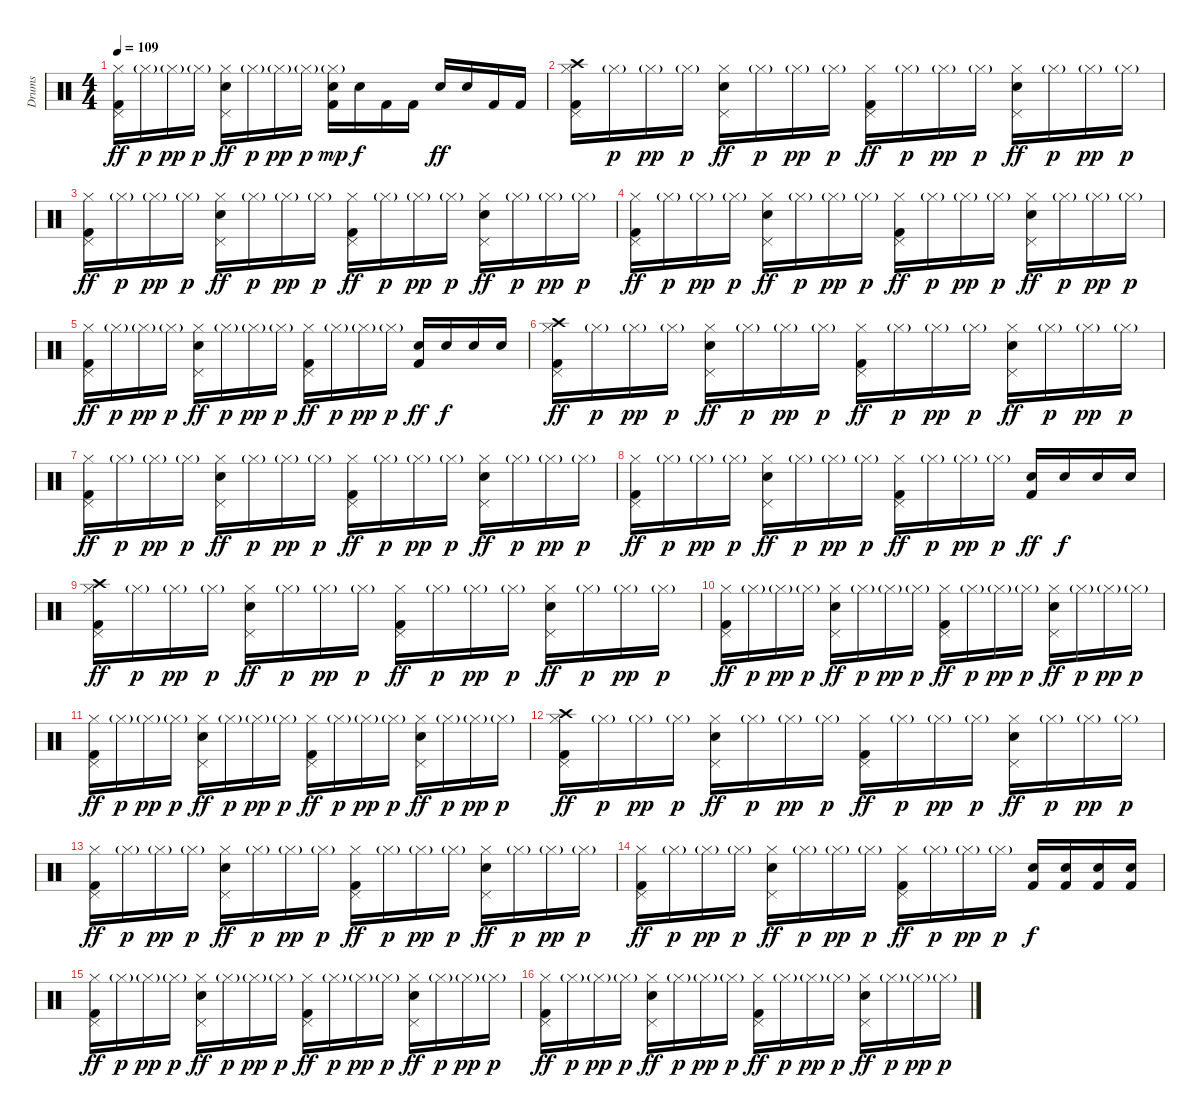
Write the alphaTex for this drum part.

\track ("Drums" "Drums") {instrument percussion}
\staff {score}
\articulation defaults
\ts (4 4)
\tempo 109
\clef neutral
\ks c
("Hi-Hat (closed)" "Pedal Hi-Hat (hit)" "Kick (hit) 2").16{dy ff} "Hi-Hat (closed)"{g}.16{dy p} "Hi-Hat (closed)"{g}.16{dy pp} "Hi-Hat (closed)"{g}.16{dy p} ("Hi-Hat (closed)" "Pedal Hi-Hat (hit)" "Electric Snare (hit)").16{dy ff} "Hi-Hat (closed)"{g}.16{dy p} "Hi-Hat (closed)"{g}.16{dy pp} "Hi-Hat (closed)"{g}.16{dy p} ("Hi-Hat (closed)"{g} "Kick (hit) 2" "Electric Snare (hit)").16{dy mp} "Electric Snare (hit)".16{dy f} "Kick (hit) 2".16 "Kick (hit) 2".16 "Electric Snare (hit)".16{dy ff} "Electric Snare (hit)".16 "Kick (hit) 2".16 "Kick (hit) 2".16 |
("Hi-Hat (closed)" "Pedal Hi-Hat (hit)" "Kick (hit) 2" "Crash high (hit)").16 "Hi-Hat (closed)"{g}.16{dy p} "Hi-Hat (closed)"{g}.16{dy pp} "Hi-Hat (closed)"{g}.16{dy p} ("Hi-Hat (closed)" "Pedal Hi-Hat (hit)" "Electric Snare (hit)").16{dy ff} "Hi-Hat (closed)"{g}.16{dy p} "Hi-Hat (closed)"{g}.16{dy pp} "Hi-Hat (closed)"{g}.16{dy p} ("Hi-Hat (closed)" "Pedal Hi-Hat (hit)" "Kick (hit) 2").16{dy ff} "Hi-Hat (closed)"{g}.16{dy p} "Hi-Hat (closed)"{g}.16{dy pp} "Hi-Hat (closed)"{g}.16{dy p} ("Hi-Hat (closed)" "Pedal Hi-Hat (hit)" "Electric Snare (hit)").16{dy ff} "Hi-Hat (closed)"{g}.16{dy p} "Hi-Hat (closed)"{g}.16{dy pp} "Hi-Hat (closed)"{g}.16{dy p} |
("Hi-Hat (closed)" "Pedal Hi-Hat (hit)" "Kick (hit) 2").16{dy ff} "Hi-Hat (closed)"{g}.16{dy p} "Hi-Hat (closed)"{g}.16{dy pp} "Hi-Hat (closed)"{g}.16{dy p} ("Hi-Hat (closed)" "Pedal Hi-Hat (hit)" "Electric Snare (hit)").16{dy ff} "Hi-Hat (closed)"{g}.16{dy p} "Hi-Hat (closed)"{g}.16{dy pp} "Hi-Hat (closed)"{g}.16{dy p} ("Hi-Hat (closed)" "Pedal Hi-Hat (hit)" "Kick (hit) 2").16{dy ff} "Hi-Hat (closed)"{g}.16{dy p} "Hi-Hat (closed)"{g}.16{dy pp} "Hi-Hat (closed)"{g}.16{dy p} ("Hi-Hat (closed)" "Pedal Hi-Hat (hit)" "Electric Snare (hit)").16{dy ff} "Hi-Hat (closed)"{g}.16{dy p} "Hi-Hat (closed)"{g}.16{dy pp} "Hi-Hat (closed)"{g}.16{dy p} |
("Hi-Hat (closed)" "Pedal Hi-Hat (hit)" "Kick (hit) 2").16{dy ff} "Hi-Hat (closed)"{g}.16{dy p} "Hi-Hat (closed)"{g}.16{dy pp} "Hi-Hat (closed)"{g}.16{dy p} ("Hi-Hat (closed)" "Pedal Hi-Hat (hit)" "Electric Snare (hit)").16{dy ff} "Hi-Hat (closed)"{g}.16{dy p} "Hi-Hat (closed)"{g}.16{dy pp} "Hi-Hat (closed)"{g}.16{dy p} ("Hi-Hat (closed)" "Pedal Hi-Hat (hit)" "Kick (hit) 2").16{dy ff} "Hi-Hat (closed)"{g}.16{dy p} "Hi-Hat (closed)"{g}.16{dy pp} "Hi-Hat (closed)"{g}.16{dy p} ("Hi-Hat (closed)" "Pedal Hi-Hat (hit)" "Electric Snare (hit)").16{dy ff} "Hi-Hat (closed)"{g}.16{dy p} "Hi-Hat (closed)"{g}.16{dy pp} "Hi-Hat (closed)"{g}.16{dy p} |
("Hi-Hat (closed)" "Pedal Hi-Hat (hit)" "Kick (hit) 2").16{dy ff} "Hi-Hat (closed)"{g}.16{dy p} "Hi-Hat (closed)"{g}.16{dy pp} "Hi-Hat (closed)"{g}.16{dy p} ("Hi-Hat (closed)" "Pedal Hi-Hat (hit)" "Electric Snare (hit)").16{dy ff} "Hi-Hat (closed)"{g}.16{dy p} "Hi-Hat (closed)"{g}.16{dy pp} "Hi-Hat (closed)"{g}.16{dy p} ("Hi-Hat (closed)" "Pedal Hi-Hat (hit)" "Kick (hit) 2").16{dy ff} "Hi-Hat (closed)"{g}.16{dy p} "Hi-Hat (closed)"{g}.16{dy pp} "Hi-Hat (closed)"{g}.16{dy p} ("Kick (hit) 2" "Electric Snare (hit)").16{dy ff} "Electric Snare (hit)".16{dy f} "Electric Snare (hit)".16 "Electric Snare (hit)".16 |
("Hi-Hat (closed)" "Pedal Hi-Hat (hit)" "Kick (hit) 2" "Crash high (hit)").16{dy ff} "Hi-Hat (closed)"{g}.16{dy p} "Hi-Hat (closed)"{g}.16{dy pp} "Hi-Hat (closed)"{g}.16{dy p} ("Hi-Hat (closed)" "Pedal Hi-Hat (hit)" "Electric Snare (hit)").16{dy ff} "Hi-Hat (closed)"{g}.16{dy p} "Hi-Hat (closed)"{g}.16{dy pp} "Hi-Hat (closed)"{g}.16{dy p} ("Hi-Hat (closed)" "Pedal Hi-Hat (hit)" "Kick (hit) 2").16{dy ff} "Hi-Hat (closed)"{g}.16{dy p} "Hi-Hat (closed)"{g}.16{dy pp} "Hi-Hat (closed)"{g}.16{dy p} ("Hi-Hat (closed)" "Pedal Hi-Hat (hit)" "Electric Snare (hit)").16{dy ff} "Hi-Hat (closed)"{g}.16{dy p} "Hi-Hat (closed)"{g}.16{dy pp} "Hi-Hat (closed)"{g}.16{dy p} |
("Hi-Hat (closed)" "Pedal Hi-Hat (hit)" "Kick (hit) 2").16{dy ff} "Hi-Hat (closed)"{g}.16{dy p} "Hi-Hat (closed)"{g}.16{dy pp} "Hi-Hat (closed)"{g}.16{dy p} ("Hi-Hat (closed)" "Pedal Hi-Hat (hit)" "Electric Snare (hit)").16{dy ff} "Hi-Hat (closed)"{g}.16{dy p} "Hi-Hat (closed)"{g}.16{dy pp} "Hi-Hat (closed)"{g}.16{dy p} ("Hi-Hat (closed)" "Pedal Hi-Hat (hit)" "Kick (hit) 2").16{dy ff} "Hi-Hat (closed)"{g}.16{dy p} "Hi-Hat (closed)"{g}.16{dy pp} "Hi-Hat (closed)"{g}.16{dy p} ("Hi-Hat (closed)" "Pedal Hi-Hat (hit)" "Electric Snare (hit)").16{dy ff} "Hi-Hat (closed)"{g}.16{dy p} "Hi-Hat (closed)"{g}.16{dy pp} "Hi-Hat (closed)"{g}.16{dy p} |
("Hi-Hat (closed)" "Pedal Hi-Hat (hit)" "Kick (hit) 2").16{dy ff} "Hi-Hat (closed)"{g}.16{dy p} "Hi-Hat (closed)"{g}.16{dy pp} "Hi-Hat (closed)"{g}.16{dy p} ("Hi-Hat (closed)" "Pedal Hi-Hat (hit)" "Electric Snare (hit)").16{dy ff} "Hi-Hat (closed)"{g}.16{dy p} "Hi-Hat (closed)"{g}.16{dy pp} "Hi-Hat (closed)"{g}.16{dy p} ("Hi-Hat (closed)" "Pedal Hi-Hat (hit)" "Kick (hit) 2").16{dy ff} "Hi-Hat (closed)"{g}.16{dy p} "Hi-Hat (closed)"{g}.16{dy pp} "Hi-Hat (closed)"{g}.16{dy p} ("Kick (hit) 2" "Electric Snare (hit)").16{dy ff} "Electric Snare (hit)".16{dy f} "Electric Snare (hit)".16 "Electric Snare (hit)".16 |
("Hi-Hat (closed)" "Pedal Hi-Hat (hit)" "Kick (hit) 2" "Crash high (hit)").16{dy ff} "Hi-Hat (closed)"{g}.16{dy p} "Hi-Hat (closed)"{g}.16{dy pp} "Hi-Hat (closed)"{g}.16{dy p} ("Hi-Hat (closed)" "Pedal Hi-Hat (hit)" "Electric Snare (hit)").16{dy ff} "Hi-Hat (closed)"{g}.16{dy p} "Hi-Hat (closed)"{g}.16{dy pp} "Hi-Hat (closed)"{g}.16{dy p} ("Hi-Hat (closed)" "Pedal Hi-Hat (hit)" "Kick (hit) 2").16{dy ff} "Hi-Hat (closed)"{g}.16{dy p} "Hi-Hat (closed)"{g}.16{dy pp} "Hi-Hat (closed)"{g}.16{dy p} ("Hi-Hat (closed)" "Pedal Hi-Hat (hit)" "Electric Snare (hit)").16{dy ff} "Hi-Hat (closed)"{g}.16{dy p} "Hi-Hat (closed)"{g}.16{dy pp} "Hi-Hat (closed)"{g}.16{dy p} |
("Hi-Hat (closed)" "Pedal Hi-Hat (hit)" "Kick (hit) 2").16{dy ff} "Hi-Hat (closed)"{g}.16{dy p} "Hi-Hat (closed)"{g}.16{dy pp} "Hi-Hat (closed)"{g}.16{dy p} ("Hi-Hat (closed)" "Pedal Hi-Hat (hit)" "Electric Snare (hit)").16{dy ff} "Hi-Hat (closed)"{g}.16{dy p} "Hi-Hat (closed)"{g}.16{dy pp} "Hi-Hat (closed)"{g}.16{dy p} ("Hi-Hat (closed)" "Pedal Hi-Hat (hit)" "Kick (hit) 2").16{dy ff} "Hi-Hat (closed)"{g}.16{dy p} "Hi-Hat (closed)"{g}.16{dy pp} "Hi-Hat (closed)"{g}.16{dy p} ("Hi-Hat (closed)" "Pedal Hi-Hat (hit)" "Electric Snare (hit)").16{dy ff} "Hi-Hat (closed)"{g}.16{dy p} "Hi-Hat (closed)"{g}.16{dy pp} "Hi-Hat (closed)"{g}.16{dy p} |
("Hi-Hat (closed)" "Pedal Hi-Hat (hit)" "Kick (hit) 2").16{dy ff} "Hi-Hat (closed)"{g}.16{dy p} "Hi-Hat (closed)"{g}.16{dy pp} "Hi-Hat (closed)"{g}.16{dy p} ("Hi-Hat (closed)" "Pedal Hi-Hat (hit)" "Electric Snare (hit)").16{dy ff} "Hi-Hat (closed)"{g}.16{dy p} "Hi-Hat (closed)"{g}.16{dy pp} "Hi-Hat (closed)"{g}.16{dy p} ("Hi-Hat (closed)" "Pedal Hi-Hat (hit)" "Kick (hit) 2").16{dy ff} "Hi-Hat (closed)"{g}.16{dy p} "Hi-Hat (closed)"{g}.16{dy pp} "Hi-Hat (closed)"{g}.16{dy p} ("Hi-Hat (closed)" "Pedal Hi-Hat (hit)" "Electric Snare (hit)").16{dy ff} "Hi-Hat (closed)"{g}.16{dy p} "Hi-Hat (closed)"{g}.16{dy pp} "Hi-Hat (closed)"{g}.16{dy p} |
("Hi-Hat (closed)" "Pedal Hi-Hat (hit)" "Kick (hit) 2" "Crash high (hit)").16{dy ff} "Hi-Hat (closed)"{g}.16{dy p} "Hi-Hat (closed)"{g}.16{dy pp} "Hi-Hat (closed)"{g}.16{dy p} ("Hi-Hat (closed)" "Pedal Hi-Hat (hit)" "Electric Snare (hit)").16{dy ff} "Hi-Hat (closed)"{g}.16{dy p} "Hi-Hat (closed)"{g}.16{dy pp} "Hi-Hat (closed)"{g}.16{dy p} ("Hi-Hat (closed)" "Pedal Hi-Hat (hit)" "Kick (hit) 2").16{dy ff} "Hi-Hat (closed)"{g}.16{dy p} "Hi-Hat (closed)"{g}.16{dy pp} "Hi-Hat (closed)"{g}.16{dy p} ("Hi-Hat (closed)" "Pedal Hi-Hat (hit)" "Electric Snare (hit)").16{dy ff} "Hi-Hat (closed)"{g}.16{dy p} "Hi-Hat (closed)"{g}.16{dy pp} "Hi-Hat (closed)"{g}.16{dy p} |
("Hi-Hat (closed)" "Pedal Hi-Hat (hit)" "Kick (hit) 2").16{dy ff} "Hi-Hat (closed)"{g}.16{dy p} "Hi-Hat (closed)"{g}.16{dy pp} "Hi-Hat (closed)"{g}.16{dy p} ("Hi-Hat (closed)" "Pedal Hi-Hat (hit)" "Electric Snare (hit)").16{dy ff} "Hi-Hat (closed)"{g}.16{dy p} "Hi-Hat (closed)"{g}.16{dy pp} "Hi-Hat (closed)"{g}.16{dy p} ("Hi-Hat (closed)" "Pedal Hi-Hat (hit)" "Kick (hit) 2").16{dy ff} "Hi-Hat (closed)"{g}.16{dy p} "Hi-Hat (closed)"{g}.16{dy pp} "Hi-Hat (closed)"{g}.16{dy p} ("Hi-Hat (closed)" "Pedal Hi-Hat (hit)" "Electric Snare (hit)").16{dy ff} "Hi-Hat (closed)"{g}.16{dy p} "Hi-Hat (closed)"{g}.16{dy pp} "Hi-Hat (closed)"{g}.16{dy p} |
("Hi-Hat (closed)" "Pedal Hi-Hat (hit)" "Kick (hit) 2").16{dy ff} "Hi-Hat (closed)"{g}.16{dy p} "Hi-Hat (closed)"{g}.16{dy pp} "Hi-Hat (closed)"{g}.16{dy p} ("Hi-Hat (closed)" "Pedal Hi-Hat (hit)" "Electric Snare (hit)").16{dy ff} "Hi-Hat (closed)"{g}.16{dy p} "Hi-Hat (closed)"{g}.16{dy pp} "Hi-Hat (closed)"{g}.16{dy p} ("Hi-Hat (closed)" "Pedal Hi-Hat (hit)" "Kick (hit) 2").16{dy ff} "Hi-Hat (closed)"{g}.16{dy p} "Hi-Hat (closed)"{g}.16{dy pp} "Hi-Hat (closed)"{g}.16{dy p} ("Kick (hit) 2" "Electric Snare (hit)").16{dy f} ("Kick (hit) 2" "Electric Snare (hit)").16 ("Kick (hit) 2" "Electric Snare (hit)").16 ("Kick (hit) 2" "Electric Snare (hit)").16 |
("Hi-Hat (closed)" "Pedal Hi-Hat (hit)" "Kick (hit) 2").16{dy ff} "Hi-Hat (closed)"{g}.16{dy p} "Hi-Hat (closed)"{g}.16{dy pp} "Hi-Hat (closed)"{g}.16{dy p} ("Hi-Hat (closed)" "Pedal Hi-Hat (hit)" "Electric Snare (hit)").16{dy ff} "Hi-Hat (closed)"{g}.16{dy p} "Hi-Hat (closed)"{g}.16{dy pp} "Hi-Hat (closed)"{g}.16{dy p} ("Hi-Hat (closed)" "Pedal Hi-Hat (hit)" "Kick (hit) 2").16{dy ff} "Hi-Hat (closed)"{g}.16{dy p} "Hi-Hat (closed)"{g}.16{dy pp} "Hi-Hat (closed)"{g}.16{dy p} ("Hi-Hat (closed)" "Pedal Hi-Hat (hit)" "Electric Snare (hit)").16{dy ff} "Hi-Hat (closed)"{g}.16{dy p} "Hi-Hat (closed)"{g}.16{dy pp} "Hi-Hat (closed)"{g}.16{dy p} |
("Hi-Hat (closed)" "Pedal Hi-Hat (hit)" "Kick (hit) 2").16{dy ff} "Hi-Hat (closed)"{g}.16{dy p} "Hi-Hat (closed)"{g}.16{dy pp} "Hi-Hat (closed)"{g}.16{dy p} ("Hi-Hat (closed)" "Pedal Hi-Hat (hit)" "Electric Snare (hit)").16{dy ff} "Hi-Hat (closed)"{g}.16{dy p} "Hi-Hat (closed)"{g}.16{dy pp} "Hi-Hat (closed)"{g}.16{dy p} ("Hi-Hat (closed)" "Pedal Hi-Hat (hit)" "Kick (hit) 2").16{dy ff} "Hi-Hat (closed)"{g}.16{dy p} "Hi-Hat (closed)"{g}.16{dy pp} "Hi-Hat (closed)"{g}.16{dy p} ("Hi-Hat (closed)" "Pedal Hi-Hat (hit)" "Electric Snare (hit)").16{dy ff} "Hi-Hat (closed)"{g}.16{dy p} "Hi-Hat (closed)"{g}.16{dy pp} "Hi-Hat (closed)"{g}.16{dy p}
